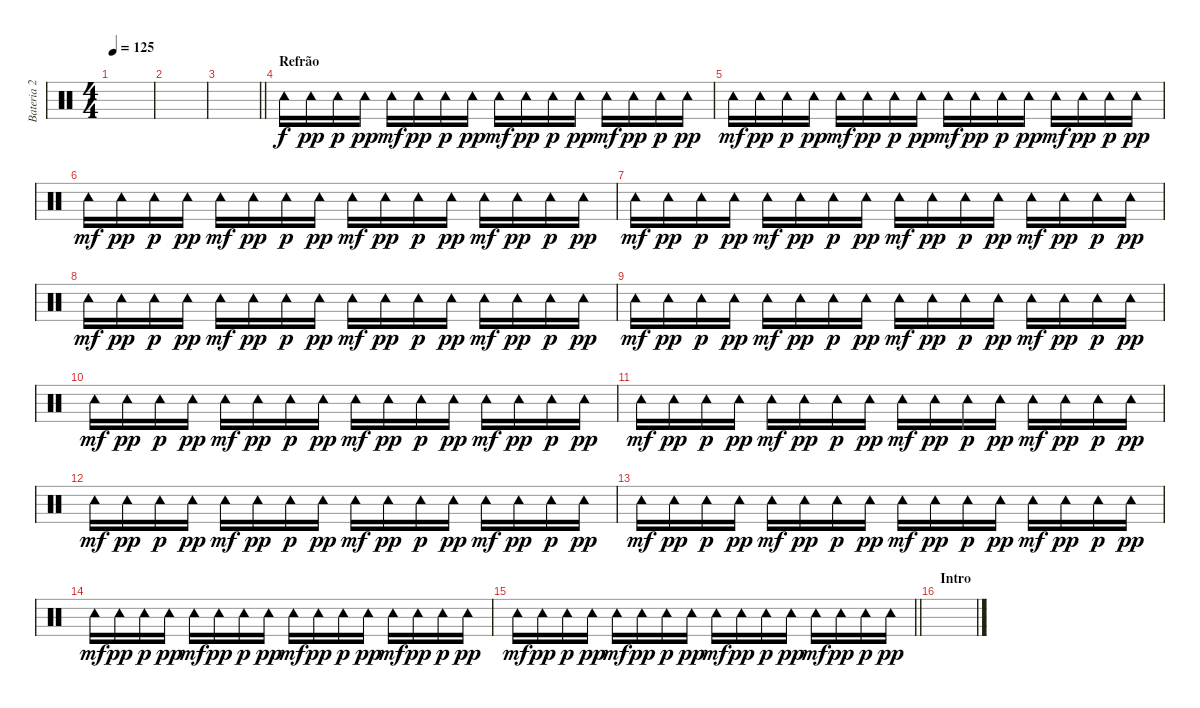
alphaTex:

\track ("Bateria 2" "Bateria 2") {instrument percussion}
\staff {score}
\articulation defaults
\ts (4 4)
\tempo 125
\clef neutral
\ks c
|
|
\barLineRight lightlight
|
\section ("" "Refrão")
"Tambourine (hit)".16 "Tambourine (hit)".16{dy pp} "Tambourine (hit)".16{dy p} "Tambourine (hit)".16{dy pp} "Tambourine (hit)".16{dy mf} "Tambourine (hit)".16{dy pp} "Tambourine (hit)".16{dy p} "Tambourine (hit)".16{dy pp} "Tambourine (hit)".16{dy mf} "Tambourine (hit)".16{dy pp} "Tambourine (hit)".16{dy p} "Tambourine (hit)".16{dy pp} "Tambourine (hit)".16{dy mf} "Tambourine (hit)".16{dy pp} "Tambourine (hit)".16{dy p} "Tambourine (hit)".16{dy pp} |
"Tambourine (hit)".16{dy mf} "Tambourine (hit)".16{dy pp} "Tambourine (hit)".16{dy p} "Tambourine (hit)".16{dy pp} "Tambourine (hit)".16{dy mf} "Tambourine (hit)".16{dy pp} "Tambourine (hit)".16{dy p} "Tambourine (hit)".16{dy pp} "Tambourine (hit)".16{dy mf} "Tambourine (hit)".16{dy pp} "Tambourine (hit)".16{dy p} "Tambourine (hit)".16{dy pp} "Tambourine (hit)".16{dy mf} "Tambourine (hit)".16{dy pp} "Tambourine (hit)".16{dy p} "Tambourine (hit)".16{dy pp} |
"Tambourine (hit)".16{dy mf} "Tambourine (hit)".16{dy pp} "Tambourine (hit)".16{dy p} "Tambourine (hit)".16{dy pp} "Tambourine (hit)".16{dy mf} "Tambourine (hit)".16{dy pp} "Tambourine (hit)".16{dy p} "Tambourine (hit)".16{dy pp} "Tambourine (hit)".16{dy mf} "Tambourine (hit)".16{dy pp} "Tambourine (hit)".16{dy p} "Tambourine (hit)".16{dy pp} "Tambourine (hit)".16{dy mf} "Tambourine (hit)".16{dy pp} "Tambourine (hit)".16{dy p} "Tambourine (hit)".16{dy pp} |
"Tambourine (hit)".16{dy mf} "Tambourine (hit)".16{dy pp} "Tambourine (hit)".16{dy p} "Tambourine (hit)".16{dy pp} "Tambourine (hit)".16{dy mf} "Tambourine (hit)".16{dy pp} "Tambourine (hit)".16{dy p} "Tambourine (hit)".16{dy pp} "Tambourine (hit)".16{dy mf} "Tambourine (hit)".16{dy pp} "Tambourine (hit)".16{dy p} "Tambourine (hit)".16{dy pp} "Tambourine (hit)".16{dy mf} "Tambourine (hit)".16{dy pp} "Tambourine (hit)".16{dy p} "Tambourine (hit)".16{dy pp} |
"Tambourine (hit)".16{dy mf} "Tambourine (hit)".16{dy pp} "Tambourine (hit)".16{dy p} "Tambourine (hit)".16{dy pp} "Tambourine (hit)".16{dy mf} "Tambourine (hit)".16{dy pp} "Tambourine (hit)".16{dy p} "Tambourine (hit)".16{dy pp} "Tambourine (hit)".16{dy mf} "Tambourine (hit)".16{dy pp} "Tambourine (hit)".16{dy p} "Tambourine (hit)".16{dy pp} "Tambourine (hit)".16{dy mf} "Tambourine (hit)".16{dy pp} "Tambourine (hit)".16{dy p} "Tambourine (hit)".16{dy pp} |
"Tambourine (hit)".16{dy mf} "Tambourine (hit)".16{dy pp} "Tambourine (hit)".16{dy p} "Tambourine (hit)".16{dy pp} "Tambourine (hit)".16{dy mf} "Tambourine (hit)".16{dy pp} "Tambourine (hit)".16{dy p} "Tambourine (hit)".16{dy pp} "Tambourine (hit)".16{dy mf} "Tambourine (hit)".16{dy pp} "Tambourine (hit)".16{dy p} "Tambourine (hit)".16{dy pp} "Tambourine (hit)".16{dy mf} "Tambourine (hit)".16{dy pp} "Tambourine (hit)".16{dy p} "Tambourine (hit)".16{dy pp} |
"Tambourine (hit)".16{dy mf} "Tambourine (hit)".16{dy pp} "Tambourine (hit)".16{dy p} "Tambourine (hit)".16{dy pp} "Tambourine (hit)".16{dy mf} "Tambourine (hit)".16{dy pp} "Tambourine (hit)".16{dy p} "Tambourine (hit)".16{dy pp} "Tambourine (hit)".16{dy mf} "Tambourine (hit)".16{dy pp} "Tambourine (hit)".16{dy p} "Tambourine (hit)".16{dy pp} "Tambourine (hit)".16{dy mf} "Tambourine (hit)".16{dy pp} "Tambourine (hit)".16{dy p} "Tambourine (hit)".16{dy pp} |
"Tambourine (hit)".16{dy mf} "Tambourine (hit)".16{dy pp} "Tambourine (hit)".16{dy p} "Tambourine (hit)".16{dy pp} "Tambourine (hit)".16{dy mf} "Tambourine (hit)".16{dy pp} "Tambourine (hit)".16{dy p} "Tambourine (hit)".16{dy pp} "Tambourine (hit)".16{dy mf} "Tambourine (hit)".16{dy pp} "Tambourine (hit)".16{dy p} "Tambourine (hit)".16{dy pp} "Tambourine (hit)".16{dy mf} "Tambourine (hit)".16{dy pp} "Tambourine (hit)".16{dy p} "Tambourine (hit)".16{dy pp} |
"Tambourine (hit)".16{dy mf} "Tambourine (hit)".16{dy pp} "Tambourine (hit)".16{dy p} "Tambourine (hit)".16{dy pp} "Tambourine (hit)".16{dy mf} "Tambourine (hit)".16{dy pp} "Tambourine (hit)".16{dy p} "Tambourine (hit)".16{dy pp} "Tambourine (hit)".16{dy mf} "Tambourine (hit)".16{dy pp} "Tambourine (hit)".16{dy p} "Tambourine (hit)".16{dy pp} "Tambourine (hit)".16{dy mf} "Tambourine (hit)".16{dy pp} "Tambourine (hit)".16{dy p} "Tambourine (hit)".16{dy pp} |
"Tambourine (hit)".16{dy mf} "Tambourine (hit)".16{dy pp} "Tambourine (hit)".16{dy p} "Tambourine (hit)".16{dy pp} "Tambourine (hit)".16{dy mf} "Tambourine (hit)".16{dy pp} "Tambourine (hit)".16{dy p} "Tambourine (hit)".16{dy pp} "Tambourine (hit)".16{dy mf} "Tambourine (hit)".16{dy pp} "Tambourine (hit)".16{dy p} "Tambourine (hit)".16{dy pp} "Tambourine (hit)".16{dy mf} "Tambourine (hit)".16{dy pp} "Tambourine (hit)".16{dy p} "Tambourine (hit)".16{dy pp} |
"Tambourine (hit)".16{dy mf} "Tambourine (hit)".16{dy pp} "Tambourine (hit)".16{dy p} "Tambourine (hit)".16{dy pp} "Tambourine (hit)".16{dy mf} "Tambourine (hit)".16{dy pp} "Tambourine (hit)".16{dy p} "Tambourine (hit)".16{dy pp} "Tambourine (hit)".16{dy mf} "Tambourine (hit)".16{dy pp} "Tambourine (hit)".16{dy p} "Tambourine (hit)".16{dy pp} "Tambourine (hit)".16{dy mf} "Tambourine (hit)".16{dy pp} "Tambourine (hit)".16{dy p} "Tambourine (hit)".16{dy pp} |
\barLineRight lightlight "Tambourine (hit)".16{dy mf} "Tambourine (hit)".16{dy pp} "Tambourine (hit)".16{dy p} "Tambourine (hit)".16{dy pp} "Tambourine (hit)".16{dy mf} "Tambourine (hit)".16{dy pp} "Tambourine (hit)".16{dy p} "Tambourine (hit)".16{dy pp} "Tambourine (hit)".16{dy mf} "Tambourine (hit)".16{dy pp} "Tambourine (hit)".16{dy p} "Tambourine (hit)".16{dy pp} "Tambourine (hit)".16{dy mf} "Tambourine (hit)".16{dy pp} "Tambourine (hit)".16{dy p} "Tambourine (hit)".16{dy pp}
|
\section ("" "Intro")
